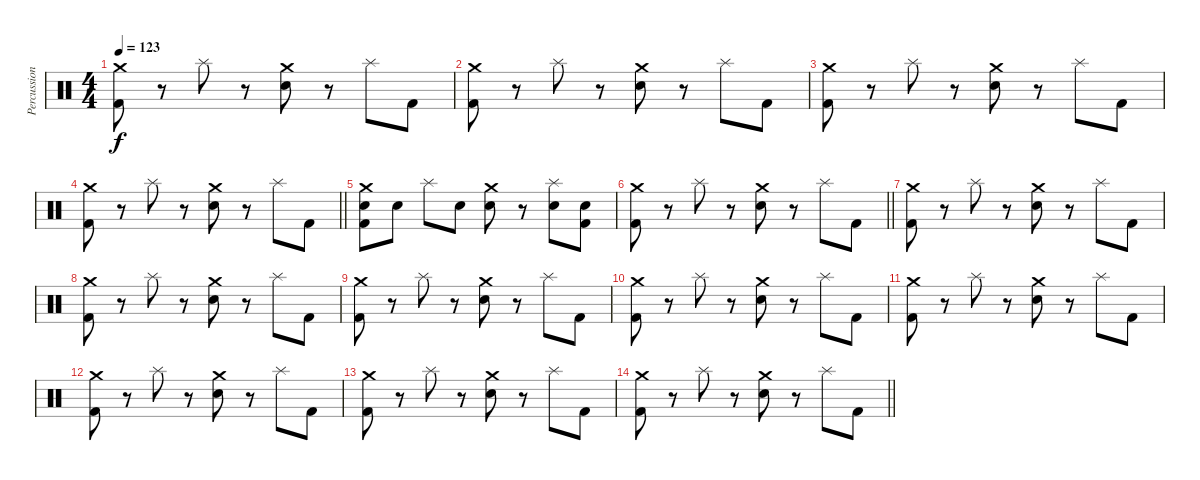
\track ("Percussion" "Percussion") {instrument percussion}
\staff {score}
\articulation defaults
\ts (4 4)
\tempo 123
\clef neutral
\ks c
("Crash medium (hit)" "Kick (hit) 2").8{dy f} r.8 "Splash (hit)".8 r.8 ("Crash medium (hit)" "Snare (hit) 2").8 r.8 "Splash (hit)".8 "Kick (hit) 2".8 |
("Crash medium (hit)" "Kick (hit) 2").8 r.8 "Splash (hit)".8 r.8 ("Crash medium (hit)" "Snare (hit) 2").8 r.8 "Splash (hit)".8 "Kick (hit) 2".8 |
("Crash medium (hit)" "Kick (hit) 2").8 r.8 "Splash (hit)".8 r.8 ("Crash medium (hit)" "Snare (hit) 2").8 r.8 "Splash (hit)".8 "Kick (hit) 2".8 |
\barLineRight lightlight
("Crash medium (hit)" "Kick (hit) 2").8 r.8 "Splash (hit)".8 r.8 ("Crash medium (hit)" "Snare (hit) 2").8 r.8 "Splash (hit)".8 "Kick (hit) 2".8 |
\section ("" "")
("Crash medium (hit)" "Snare (hit) 2" "Kick (hit) 2").8 "Snare (hit) 2".8 "Splash (hit)".8 "Snare (hit) 2".8 ("Crash medium (hit)" "Snare (hit) 2").8 r.8 ("Splash (hit)" "Snare (hit) 2").8 ("Snare (hit) 2" "Kick (hit) 2").8 |
\barLineRight lightlight
("Crash medium (hit)" "Kick (hit) 2").8 r.8 "Splash (hit)".8 r.8 ("Crash medium (hit)" "Snare (hit) 2").8 r.8 "Splash (hit)".8 "Kick (hit) 2".8 |
("Crash medium (hit)" "Kick (hit) 2").8 r.8 "Splash (hit)".8 r.8 ("Crash medium (hit)" "Snare (hit) 2").8 r.8 "Splash (hit)".8 "Kick (hit) 2".8 |
("Crash medium (hit)" "Kick (hit) 2").8 r.8 "Splash (hit)".8 r.8 ("Crash medium (hit)" "Snare (hit) 2").8 r.8 "Splash (hit)".8 "Kick (hit) 2".8 |
("Crash medium (hit)" "Kick (hit) 2").8 r.8 "Splash (hit)".8 r.8 ("Crash medium (hit)" "Snare (hit) 2").8 r.8 "Splash (hit)".8 "Kick (hit) 2".8 |
("Crash medium (hit)" "Kick (hit) 2").8 r.8 "Splash (hit)".8 r.8 ("Crash medium (hit)" "Snare (hit) 2").8 r.8 "Splash (hit)".8 "Kick (hit) 2".8 |
("Crash medium (hit)" "Kick (hit) 2").8 r.8 "Splash (hit)".8 r.8 ("Crash medium (hit)" "Snare (hit) 2").8 r.8 "Splash (hit)".8 "Kick (hit) 2".8 |
("Crash medium (hit)" "Kick (hit) 2").8 r.8 "Splash (hit)".8 r.8 ("Crash medium (hit)" "Snare (hit) 2").8 r.8 "Splash (hit)".8 "Kick (hit) 2".8 |
("Crash medium (hit)" "Kick (hit) 2").8 r.8 "Splash (hit)".8 r.8 ("Crash medium (hit)" "Snare (hit) 2").8 r.8 "Splash (hit)".8 "Kick (hit) 2".8 |
\barLineRight lightlight
("Crash medium (hit)" "Kick (hit) 2").8 r.8 "Splash (hit)".8 r.8 ("Crash medium (hit)" "Snare (hit) 2").8 r.8 "Splash (hit)".8 "Kick (hit) 2".8
